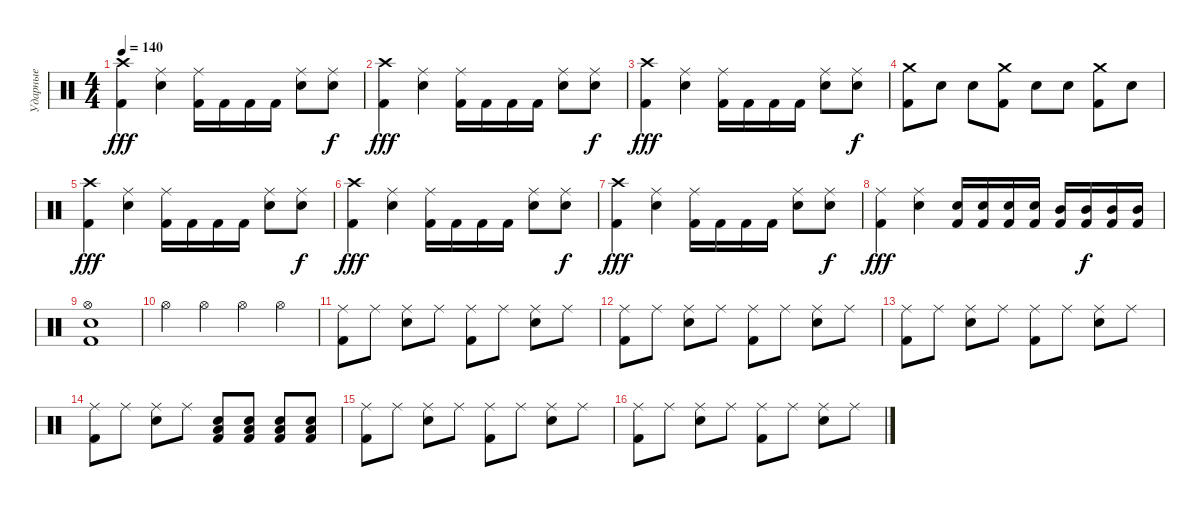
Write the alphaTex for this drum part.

\track ("Ударные" "Ударные") {instrument percussion}
\staff {score}
\articulation defaults
\ts (4 4)
\tempo 140
\clef neutral
\ks c
("Kick (hit) 2" "Crash high (hit)").4{dy fff} ("Snare (hit) 2" "Ride (middle)").4 ("Kick (hit) 2" "Ride (middle)").16 "Kick (hit) 2".16 "Kick (hit) 2".16 "Kick (hit) 2".16 ("Snare (hit) 2" "Ride (middle)").8 ("Snare (hit) 2" "Ride (middle)").8{dy f} |
("Kick (hit) 2" "Crash high (hit)").4{dy fff} ("Snare (hit) 2" "Ride (middle)").4 ("Kick (hit) 2" "Ride (middle)").16 "Kick (hit) 2".16 "Kick (hit) 2".16 "Kick (hit) 2".16 ("Snare (hit) 2" "Ride (middle)").8 ("Snare (hit) 2" "Ride (middle)").8{dy f} |
("Kick (hit) 2" "Crash high (hit)").4{dy fff} ("Snare (hit) 2" "Ride (middle)").4 ("Kick (hit) 2" "Ride (middle)").16 "Kick (hit) 2".16 "Kick (hit) 2".16 "Kick (hit) 2".16 ("Snare (hit) 2" "Ride (middle)").8 ("Snare (hit) 2" "Ride (middle)").8{dy f} |
("Kick (hit) 2" "Crash medium (hit)").8 "Snare (hit) 2".8 "Snare (hit) 2".8 ("Kick (hit) 2" "Crash medium (hit)").8 "Snare (hit) 2".8 "Snare (hit) 2".8 ("Kick (hit) 2" "Crash medium (hit)").8 "Snare (hit) 2".8 |
("Kick (hit) 2" "Crash high (hit)").4{dy fff} ("Snare (hit) 2" "Ride (middle)").4 ("Kick (hit) 2" "Ride (middle)").16 "Kick (hit) 2".16 "Kick (hit) 2".16 "Kick (hit) 2".16 ("Snare (hit) 2" "Ride (middle)").8 ("Snare (hit) 2" "Ride (middle)").8{dy f} |
("Kick (hit) 2" "Crash high (hit)").4{dy fff} ("Snare (hit) 2" "Ride (middle)").4 ("Kick (hit) 2" "Ride (middle)").16 "Kick (hit) 2".16 "Kick (hit) 2".16 "Kick (hit) 2".16 ("Snare (hit) 2" "Ride (middle)").8 ("Snare (hit) 2" "Ride (middle)").8{dy f} |
("Kick (hit) 2" "Crash high (hit)").4{dy fff} ("Snare (hit) 2" "Ride (middle)").4 ("Kick (hit) 2" "Ride (middle)").16 "Kick (hit) 2".16 "Kick (hit) 2".16 "Kick (hit) 2".16 ("Snare (hit) 2" "Ride (middle)").8 ("Snare (hit) 2" "Ride (middle)").8{dy f} |
("Kick (hit) 2" "Ride (middle)").4{dy fff} ("Electric Snare (hit)" "Ride (middle)").4 ("Kick (hit) 2" "Snare (hit) 2").16 ("Kick (hit) 2" "Snare (hit) 2").16 ("Kick (hit) 2" "Snare (hit) 2").16 ("Kick (hit) 2" "Snare (hit) 2").16 ("Kick (hit) 2" "Mid Tom (hit)").16 ("Kick (hit) 2" "Mid Tom (hit)").16{dy f} ("Kick (hit) 2" "Mid Tom (hit)").16 ("Kick (hit) 2" "Mid Tom (hit)").16 |
("Hi-Hat (open)" "Kick (hit) 2" "Electric Snare (hit)").1 |
"Hi-Hat (open)".4 "Hi-Hat (open)".4 "Hi-Hat (open)".4 "Hi-Hat (open)".4 |
("Ride (middle)" "Kick (hit) 2").8 "Ride (middle)".8 ("Ride (middle)" "Electric Snare (hit)").8 "Ride (middle)".8 ("Ride (middle)" "Kick (hit) 2").8 "Ride (middle)".8 ("Ride (middle)" "Electric Snare (hit)").8 "Ride (middle)".8 |
("Ride (middle)" "Kick (hit) 2").8 "Ride (middle)".8 ("Ride (middle)" "Electric Snare (hit)").8 "Ride (middle)".8 ("Ride (middle)" "Kick (hit) 2").8 "Ride (middle)".8 ("Ride (middle)" "Electric Snare (hit)").8 "Ride (middle)".8 |
("Ride (middle)" "Kick (hit) 2").8 "Ride (middle)".8 ("Ride (middle)" "Electric Snare (hit)").8 "Ride (middle)".8 ("Ride (middle)" "Kick (hit) 2").8 "Ride (middle)".8 ("Ride (middle)" "Electric Snare (hit)").8 "Ride (middle)".8 |
("Ride (middle)" "Kick (hit) 2").8 "Ride (middle)".8 ("Ride (middle)" "Electric Snare (hit)").8 "Ride (middle)".8 ("Snare (hit) 2" "Low Floor Tom (hit)" "Kick (hit) 2").8 ("Snare (hit) 2" "Low Floor Tom (hit)" "Kick (hit) 2").8 ("Snare (hit) 2" "Low Floor Tom (hit)" "Kick (hit) 2").8 ("Snare (hit) 2" "Low Floor Tom (hit)" "Kick (hit) 2").8 |
("Ride (middle)" "Kick (hit) 2").8 "Ride (middle)".8 ("Ride (middle)" "Electric Snare (hit)").8 "Ride (middle)".8 ("Ride (middle)" "Kick (hit) 2").8 "Ride (middle)".8 ("Ride (middle)" "Electric Snare (hit)").8 "Ride (middle)".8 |
("Ride (middle)" "Kick (hit) 2").8 "Ride (middle)".8 ("Ride (middle)" "Electric Snare (hit)").8 "Ride (middle)".8 ("Ride (middle)" "Kick (hit) 2").8 "Ride (middle)".8 ("Ride (middle)" "Electric Snare (hit)").8 "Ride (middle)".8
